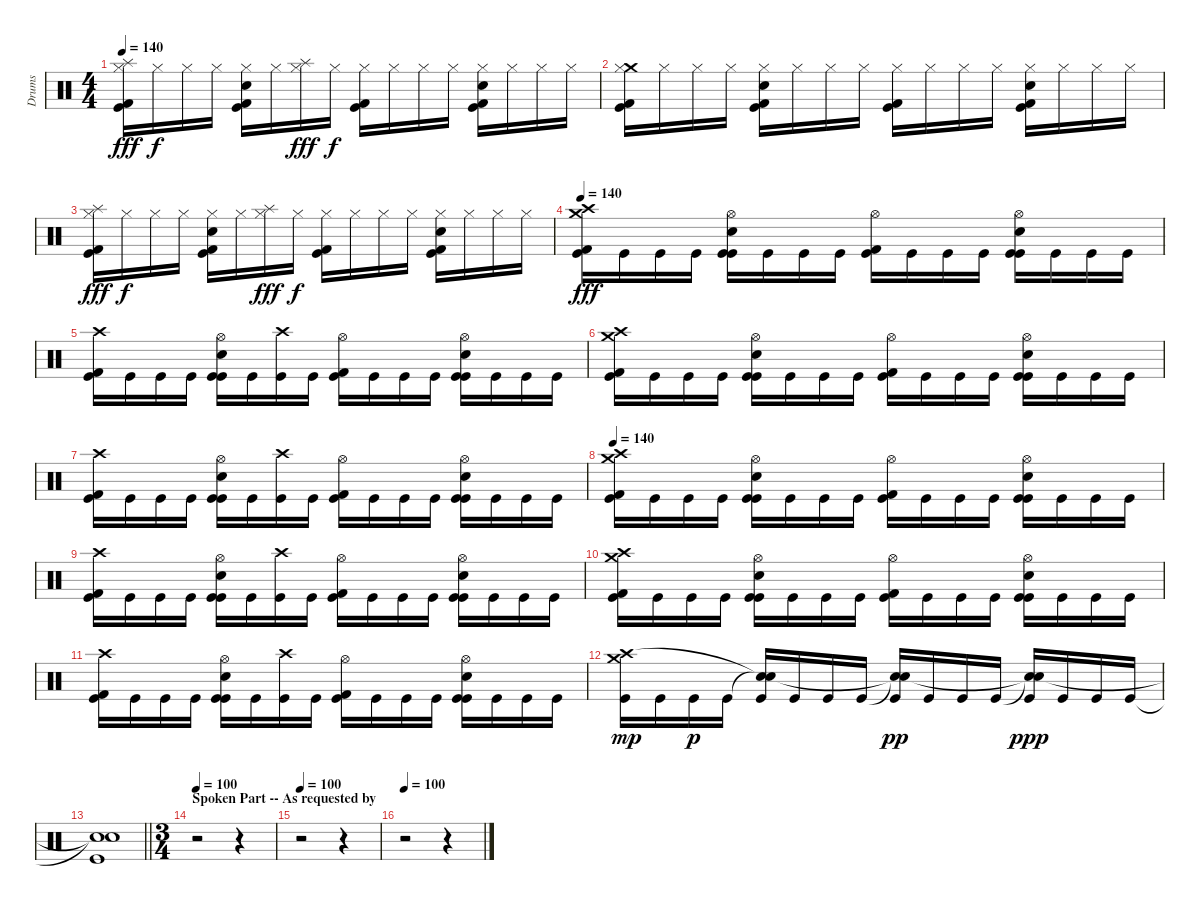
\track ("Drums" "Drums") {instrument percussion}
\staff {score}
\articulation defaults
\ts (4 4)
\tempo 140
\clef neutral
\ks c
("Splash (hit)" "Hi-Hat (closed)" "Kick (hit)" "Kick (hit) 2").16{dy fff} "Hi-Hat (closed)".16{dy f} "Hi-Hat (closed)".16 "Hi-Hat (closed)".16 ("Hi-Hat (closed)" "Electric Snare (hit)" "Kick (hit)" "Kick (hit) 2").16 "Hi-Hat (closed)".16 ("Splash (hit)" "Hi-Hat (closed)").16{dy fff} "Hi-Hat (closed)".16{dy f} ("Hi-Hat (closed)" "Kick (hit)" "Kick (hit) 2").16 "Hi-Hat (closed)".16 "Hi-Hat (closed)".16 "Hi-Hat (closed)".16 ("Hi-Hat (closed)" "Electric Snare (hit)" "Kick (hit)" "Kick (hit) 2").16 "Hi-Hat (closed)".16 "Hi-Hat (closed)".16 "Hi-Hat (closed)".16 |
("Crash medium (hit)" "Hi-Hat (closed)" "Kick (hit)" "Kick (hit) 2").16 "Hi-Hat (closed)".16 "Hi-Hat (closed)".16 "Hi-Hat (closed)".16 ("Hi-Hat (closed)" "Electric Snare (hit)" "Kick (hit)" "Kick (hit) 2").16 "Hi-Hat (closed)".16 "Hi-Hat (closed)".16 "Hi-Hat (closed)".16 ("Hi-Hat (closed)" "Kick (hit)" "Kick (hit) 2").16 "Hi-Hat (closed)".16 "Hi-Hat (closed)".16 "Hi-Hat (closed)".16 ("Hi-Hat (closed)" "Electric Snare (hit)" "Kick (hit)" "Kick (hit) 2").16 "Hi-Hat (closed)".16 "Hi-Hat (closed)".16 "Hi-Hat (closed)".16 |
("Splash (hit)" "Hi-Hat (closed)" "Kick (hit)" "Kick (hit) 2").16{dy fff} "Hi-Hat (closed)".16{dy f} "Hi-Hat (closed)".16 "Hi-Hat (closed)".16 ("Hi-Hat (closed)" "Electric Snare (hit)" "Kick (hit)" "Kick (hit) 2").16 "Hi-Hat (closed)".16 ("Splash (hit)" "Hi-Hat (closed)").16{dy fff} "Hi-Hat (closed)".16{dy f} ("Hi-Hat (closed)" "Kick (hit)" "Kick (hit) 2").16 "Hi-Hat (closed)".16 "Hi-Hat (closed)".16 "Hi-Hat (closed)".16 ("Hi-Hat (closed)" "Electric Snare (hit)" "Kick (hit)" "Kick (hit) 2").16 "Hi-Hat (closed)".16 "Hi-Hat (closed)".16 "Hi-Hat (closed)".16 |
\tempo 140
("Crash medium (hit)" "Crash high (hit)" "Kick (hit) 2" "Kick (hit)").16{dy fff} "Kick (hit)".16 "Kick (hit)".16 "Kick (hit)".16 ("Hi-Hat (open)" "Electric Snare (hit)" "Kick (hit)" "Kick (hit)").16 "Kick (hit)".16 "Kick (hit)".16 "Kick (hit)".16 ("Hi-Hat (open)" "Kick (hit) 2" "Kick (hit)").16 "Kick (hit)".16 "Kick (hit)".16 "Kick (hit)".16 ("Hi-Hat (open)" "Electric Snare (hit)" "Kick (hit)" "Kick (hit)").16 "Kick (hit)".16 "Kick (hit)".16 "Kick (hit)".16 |
("Crash high (hit)" "Kick (hit) 2" "Kick (hit)").16 "Kick (hit)".16 "Kick (hit)".16 "Kick (hit)".16 ("Hi-Hat (open)" "Electric Snare (hit)" "Kick (hit)" "Kick (hit)").16 "Kick (hit)".16 ("Crash high (hit)" "Kick (hit)").16 "Kick (hit)".16 ("Hi-Hat (open)" "Kick (hit) 2" "Kick (hit)").16 "Kick (hit)".16 "Kick (hit)".16 "Kick (hit)".16 ("Hi-Hat (open)" "Electric Snare (hit)" "Kick (hit)" "Kick (hit)").16 "Kick (hit)".16 "Kick (hit)".16 "Kick (hit)".16 |
("Crash medium (hit)" "Crash high (hit)" "Kick (hit) 2" "Kick (hit)").16 "Kick (hit)".16 "Kick (hit)".16 "Kick (hit)".16 ("Hi-Hat (open)" "Electric Snare (hit)" "Kick (hit)" "Kick (hit)").16 "Kick (hit)".16 "Kick (hit)".16 "Kick (hit)".16 ("Hi-Hat (open)" "Kick (hit) 2" "Kick (hit)").16 "Kick (hit)".16 "Kick (hit)".16 "Kick (hit)".16 ("Hi-Hat (open)" "Electric Snare (hit)" "Kick (hit)" "Kick (hit)").16 "Kick (hit)".16 "Kick (hit)".16 "Kick (hit)".16 |
("Crash high (hit)" "Kick (hit) 2" "Kick (hit)").16 "Kick (hit)".16 "Kick (hit)".16 "Kick (hit)".16 ("Hi-Hat (open)" "Electric Snare (hit)" "Kick (hit)" "Kick (hit)").16 "Kick (hit)".16 ("Crash high (hit)" "Kick (hit)").16 "Kick (hit)".16 ("Hi-Hat (open)" "Kick (hit) 2" "Kick (hit)").16 "Kick (hit)".16 "Kick (hit)".16 "Kick (hit)".16 ("Hi-Hat (open)" "Electric Snare (hit)" "Kick (hit)" "Kick (hit)").16 "Kick (hit)".16 "Kick (hit)".16 "Kick (hit)".16 |
\tempo 140
("Crash medium (hit)" "Crash high (hit)" "Kick (hit) 2" "Kick (hit)").16 "Kick (hit)".16 "Kick (hit)".16 "Kick (hit)".16 ("Hi-Hat (open)" "Electric Snare (hit)" "Kick (hit)" "Kick (hit)").16 "Kick (hit)".16 "Kick (hit)".16 "Kick (hit)".16 ("Hi-Hat (open)" "Kick (hit) 2" "Kick (hit)").16 "Kick (hit)".16 "Kick (hit)".16 "Kick (hit)".16 ("Hi-Hat (open)" "Electric Snare (hit)" "Kick (hit)" "Kick (hit)").16 "Kick (hit)".16 "Kick (hit)".16 "Kick (hit)".16 |
("Crash high (hit)" "Kick (hit) 2" "Kick (hit)").16 "Kick (hit)".16 "Kick (hit)".16 "Kick (hit)".16 ("Hi-Hat (open)" "Electric Snare (hit)" "Kick (hit)" "Kick (hit)").16 "Kick (hit)".16 ("Crash high (hit)" "Kick (hit)").16 "Kick (hit)".16 ("Hi-Hat (open)" "Kick (hit) 2" "Kick (hit)").16 "Kick (hit)".16 "Kick (hit)".16 "Kick (hit)".16 ("Hi-Hat (open)" "Electric Snare (hit)" "Kick (hit)" "Kick (hit)").16 "Kick (hit)".16 "Kick (hit)".16 "Kick (hit)".16 |
("Crash medium (hit)" "Crash high (hit)" "Kick (hit) 2" "Kick (hit)").16 "Kick (hit)".16 "Kick (hit)".16 "Kick (hit)".16 ("Hi-Hat (open)" "Electric Snare (hit)" "Kick (hit)" "Kick (hit)").16 "Kick (hit)".16 "Kick (hit)".16 "Kick (hit)".16 ("Hi-Hat (open)" "Kick (hit) 2" "Kick (hit)").16 "Kick (hit)".16 "Kick (hit)".16 "Kick (hit)".16 ("Hi-Hat (open)" "Electric Snare (hit)" "Kick (hit)" "Kick (hit)").16 "Kick (hit)".16 "Kick (hit)".16 "Kick (hit)".16 |
("Crash high (hit)" "Kick (hit) 2" "Kick (hit)").16 "Kick (hit)".16 "Kick (hit)".16 "Kick (hit)".16 ("Hi-Hat (open)" "Electric Snare (hit)" "Kick (hit)" "Kick (hit)").16 "Kick (hit)".16 ("Crash high (hit)" "Kick (hit)").16 "Kick (hit)".16 ("Hi-Hat (open)" "Kick (hit) 2" "Kick (hit)").16 "Kick (hit)".16 "Kick (hit)".16 "Kick (hit)".16 ("Hi-Hat (open)" "Electric Snare (hit)" "Kick (hit)" "Kick (hit)").16 "Kick (hit)".16 "Kick (hit)".16 "Kick (hit)".16 |
("Crash medium (hit)" "Crash high (hit)" "Kick (hit)").16{dy mp} "Kick (hit)".16 "Kick (hit)".16{dy p} "Kick (hit)".16 ("Snare (hit)"{t} "Snare (hit)"{t} "Kick (hit)").16 "Kick (hit)".16 "Kick (hit)".16 "Kick (hit)".16 ("Snare (hit)"{t} "Snare (hit)"{t} "Kick (hit)").16{dy pp} "Kick (hit)".16 "Kick (hit)".16 "Kick (hit)".16 ("Snare (hit)"{t} "Snare (hit)"{t} "Kick (hit)").16{dy ppp} "Kick (hit)".16 "Kick (hit)".16 "Kick (hit)".16 |
\barLineRight lightlight
("Snare (hit)"{t} "Snare (hit)"{t} "Kick (hit)").1 |
\ts (3 4)
\section ("" "Spoken Part -- As requested by")
\tempo 100
r.2 r.4 |
\tempo 100
r.2 r.4 |
\tempo 100
r.2 r.4
